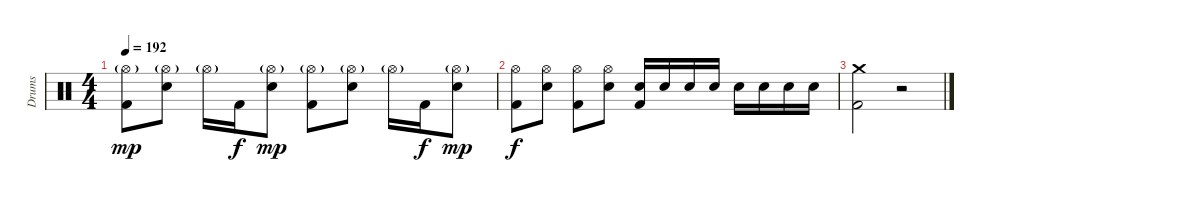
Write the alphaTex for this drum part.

\track ("Drums" "Drums") {instrument percussion}
\staff {score}
\articulation defaults
\ts (4 4)
\tempo 192
\clef neutral
\ks c
("Hi-Hat (open)"{g} "Kick (hit) 2").8{dy mp} ("Hi-Hat (open)"{g} "Electric Snare (hit)").8 "Hi-Hat (open)"{g}.16 "Kick (hit) 2".16{dy f} ("Hi-Hat (open)"{g} "Electric Snare (hit)").8{dy mp} ("Hi-Hat (open)"{g} "Kick (hit) 2").8 ("Hi-Hat (open)"{g} "Electric Snare (hit)").8 "Hi-Hat (open)"{g}.16 "Kick (hit) 2".16{dy f} ("Hi-Hat (open)"{g} "Electric Snare (hit)").8{dy mp} |
("Hi-Hat (open)" "Kick (hit) 2").8{dy f} ("Hi-Hat (open)" "Electric Snare (hit)").8 ("Hi-Hat (open)" "Kick (hit) 2").8 ("Hi-Hat (open)" "Electric Snare (hit)").8 ("Electric Snare (hit)" "Kick (hit) 2").16 "Electric Snare (hit)".16 "Electric Snare (hit)".16 "Electric Snare (hit)".16 "Electric Snare (hit)".16 "Electric Snare (hit)".16 "Electric Snare (hit)".16 "Electric Snare (hit)".16 |
("Crash medium (hit)" "Kick (hit) 2").2 r.2
